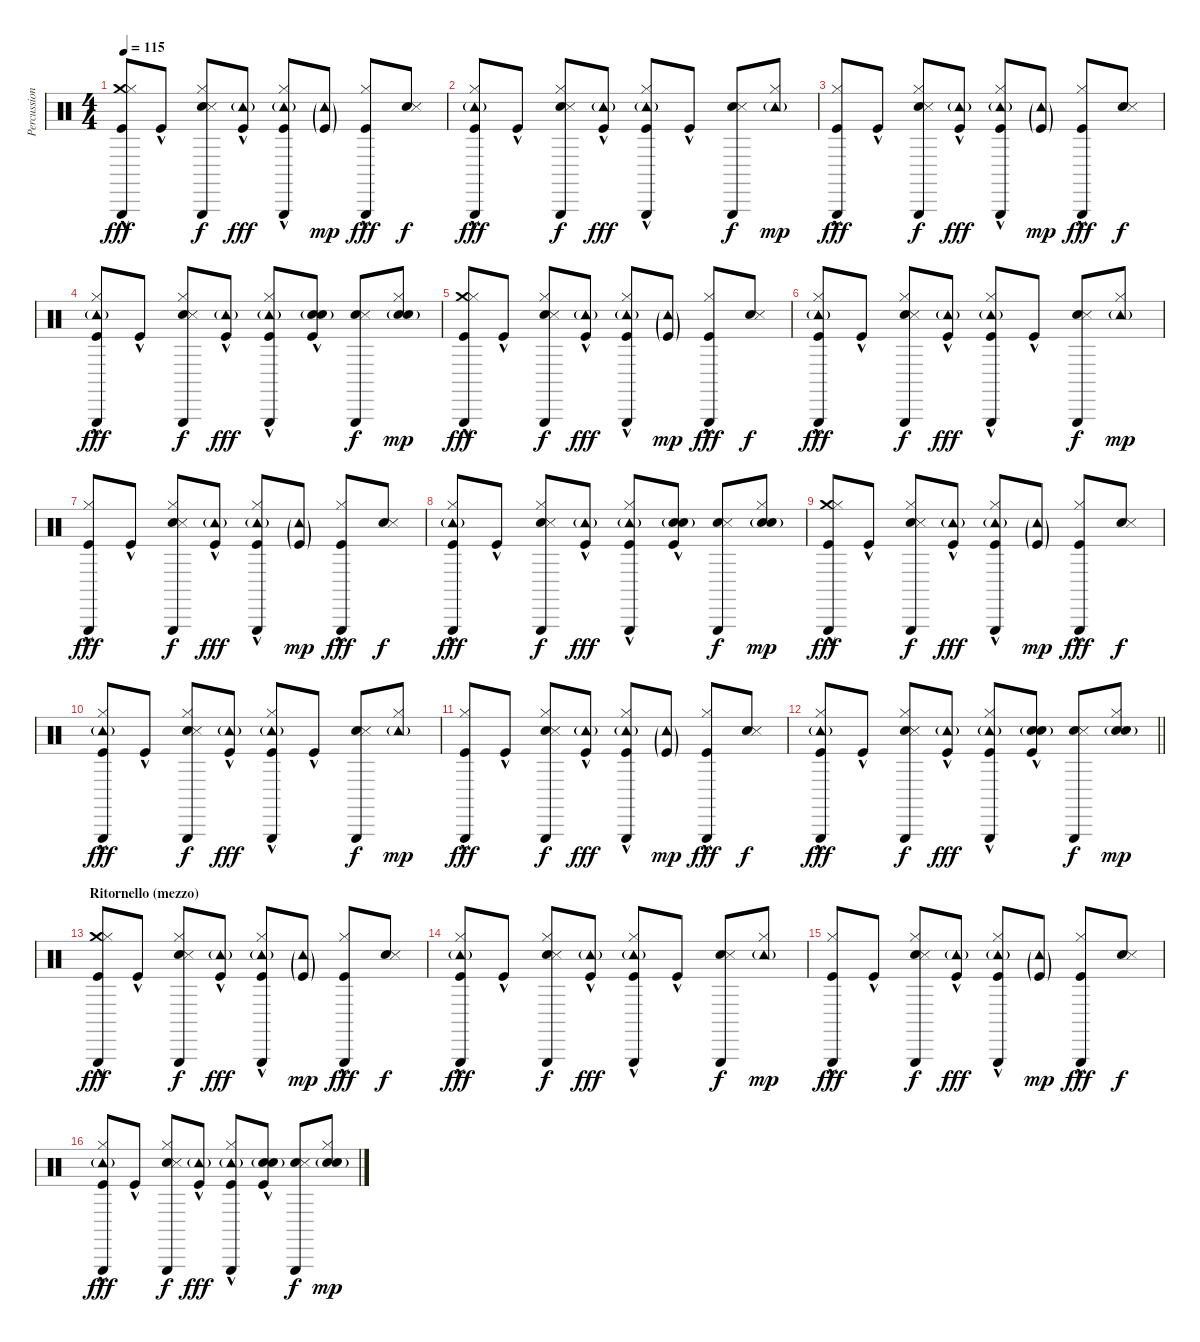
\track ("Percussion" "Percussion") {instrument percussion}
\staff {score}
\articulation defaults
\ts (4 4)
\tempo 115
\clef neutral
\ks c
("Triangle (hit)" "Crash medium (hit)" "Hi-Hat (closed)" "Kick (hit)"{hac}).8{dy fff} "Kick (hit)"{hac}.8 ("Hand Clap (hit)" "Snare (side stick) 3" "Hi-Hat (closed)" "Triangle (hit)").8{dy f} ("Tambourine (hit)"{g} "Kick (hit)"{hac}).8{dy fff} ("Triangle (hit)" "Hi-Hat (closed)" "Tambourine (hit)"{g} "Kick (hit)"{hac}).8 ("Tambourine (hit)"{g} "Kick (hit)"{g}).8{dy mp} ("Triangle (hit)" "Hi-Hat (closed)" "Kick (hit)"{hac}).8{dy fff} ("Hand Clap (hit)" "Snare (side stick) 3").8{dy f} |
("Triangle (hit)" "Hi-Hat (closed)" "Tambourine (hit)"{g} "Kick (hit)"{hac}).8{dy fff} "Kick (hit)"{hac}.8 ("Hand Clap (hit)" "Snare (side stick) 3" "Hi-Hat (closed)" "Triangle (hit)").8{dy f} ("Tambourine (hit)"{g} "Kick (hit)"{hac}).8{dy fff} ("Triangle (hit)" "Hi-Hat (closed)" "Tambourine (hit)"{g} "Kick (hit)"{hac}).8 "Kick (hit)"{hac}.8 ("Hand Clap (hit)" "Snare (side stick) 3" "Triangle (hit)").8{dy f} ("Hi-Hat (closed)" "Tambourine (hit)"{g}).8{dy mp} |
("Triangle (hit)" "Hi-Hat (closed)" "Kick (hit)"{hac}).8{dy fff} "Kick (hit)"{hac}.8 ("Hand Clap (hit)" "Snare (side stick) 3" "Hi-Hat (closed)" "Triangle (hit)").8{dy f} ("Tambourine (hit)"{g} "Kick (hit)"{hac}).8{dy fff} ("Triangle (hit)" "Hi-Hat (closed)" "Tambourine (hit)"{g} "Kick (hit)"{hac}).8 ("Tambourine (hit)"{g} "Kick (hit)"{g}).8{dy mp} ("Triangle (hit)" "Hi-Hat (closed)" "Kick (hit)"{hac}).8{dy fff} ("Hand Clap (hit)" "Snare (side stick) 3").8{dy f} |
("Triangle (hit)" "Hi-Hat (closed)" "Tambourine (hit)"{g} "Kick (hit)"{hac}).8{dy fff} "Kick (hit)"{hac}.8 ("Hand Clap (hit)" "Snare (side stick) 3" "Hi-Hat (closed)" "Triangle (hit)").8{dy f} ("Tambourine (hit)"{g} "Kick (hit)"{hac}).8{dy fff} ("Triangle (hit)" "Hi-Hat (closed)" "Tambourine (hit)"{g} "Kick (hit)"{hac}).8 ("Snare (hit) 2" "Electric Snare (hit)"{g} "Kick (hit)"{hac}).8 ("Hand Clap (hit)" "Snare (side stick) 3" "Triangle (hit)").8{dy f} ("Hi-Hat (closed)" "Snare (hit) 2" "Electric Snare (hit)"{g}).8{dy mp} |
("Triangle (hit)" "Crash medium (hit)" "Hi-Hat (closed)" "Kick (hit)"{hac}).8{dy fff} "Kick (hit)"{hac}.8 ("Hand Clap (hit)" "Snare (side stick) 3" "Hi-Hat (closed)" "Triangle (hit)").8{dy f} ("Tambourine (hit)"{g} "Kick (hit)"{hac}).8{dy fff} ("Triangle (hit)" "Hi-Hat (closed)" "Tambourine (hit)"{g} "Kick (hit)"{hac}).8 ("Tambourine (hit)"{g} "Kick (hit)"{g}).8{dy mp} ("Triangle (hit)" "Hi-Hat (closed)" "Kick (hit)"{hac}).8{dy fff} ("Hand Clap (hit)" "Snare (side stick) 3").8{dy f} |
("Triangle (hit)" "Hi-Hat (closed)" "Tambourine (hit)"{g} "Kick (hit)"{hac}).8{dy fff} "Kick (hit)"{hac}.8 ("Hand Clap (hit)" "Snare (side stick) 3" "Hi-Hat (closed)" "Triangle (hit)").8{dy f} ("Tambourine (hit)"{g} "Kick (hit)"{hac}).8{dy fff} ("Triangle (hit)" "Hi-Hat (closed)" "Tambourine (hit)"{g} "Kick (hit)"{hac}).8 "Kick (hit)"{hac}.8 ("Hand Clap (hit)" "Snare (side stick) 3" "Triangle (hit)").8{dy f} ("Hi-Hat (closed)" "Tambourine (hit)"{g}).8{dy mp} |
("Triangle (hit)" "Hi-Hat (closed)" "Kick (hit)"{hac}).8{dy fff} "Kick (hit)"{hac}.8 ("Hand Clap (hit)" "Snare (side stick) 3" "Hi-Hat (closed)" "Triangle (hit)").8{dy f} ("Tambourine (hit)"{g} "Kick (hit)"{hac}).8{dy fff} ("Triangle (hit)" "Hi-Hat (closed)" "Tambourine (hit)"{g} "Kick (hit)"{hac}).8 ("Tambourine (hit)"{g} "Kick (hit)"{g}).8{dy mp} ("Triangle (hit)" "Hi-Hat (closed)" "Kick (hit)"{hac}).8{dy fff} ("Hand Clap (hit)" "Snare (side stick) 3").8{dy f} |
("Triangle (hit)" "Hi-Hat (closed)" "Tambourine (hit)"{g} "Kick (hit)"{hac}).8{dy fff} "Kick (hit)"{hac}.8 ("Hand Clap (hit)" "Snare (side stick) 3" "Hi-Hat (closed)" "Triangle (hit)").8{dy f} ("Tambourine (hit)"{g} "Kick (hit)"{hac}).8{dy fff} ("Triangle (hit)" "Hi-Hat (closed)" "Tambourine (hit)"{g} "Kick (hit)"{hac}).8 ("Snare (hit) 2" "Electric Snare (hit)"{g} "Kick (hit)"{hac}).8 ("Hand Clap (hit)" "Snare (side stick) 3" "Triangle (hit)").8{dy f} ("Hi-Hat (closed)" "Snare (hit) 2" "Electric Snare (hit)"{g}).8{dy mp} |
("Triangle (hit)" "Crash medium (hit)" "Hi-Hat (closed)" "Kick (hit)"{hac}).8{dy fff} "Kick (hit)"{hac}.8 ("Hand Clap (hit)" "Snare (side stick) 3" "Hi-Hat (closed)" "Triangle (hit)").8{dy f} ("Tambourine (hit)"{g} "Kick (hit)"{hac}).8{dy fff} ("Triangle (hit)" "Hi-Hat (closed)" "Tambourine (hit)"{g} "Kick (hit)"{hac}).8 ("Tambourine (hit)"{g} "Kick (hit)"{g}).8{dy mp} ("Triangle (hit)" "Hi-Hat (closed)" "Kick (hit)"{hac}).8{dy fff} ("Hand Clap (hit)" "Snare (side stick) 3").8{dy f} |
("Triangle (hit)" "Hi-Hat (closed)" "Tambourine (hit)"{g} "Kick (hit)"{hac}).8{dy fff} "Kick (hit)"{hac}.8 ("Hand Clap (hit)" "Snare (side stick) 3" "Hi-Hat (closed)" "Triangle (hit)").8{dy f} ("Tambourine (hit)"{g} "Kick (hit)"{hac}).8{dy fff} ("Triangle (hit)" "Hi-Hat (closed)" "Tambourine (hit)"{g} "Kick (hit)"{hac}).8 "Kick (hit)"{hac}.8 ("Hand Clap (hit)" "Snare (side stick) 3" "Triangle (hit)").8{dy f} ("Hi-Hat (closed)" "Tambourine (hit)"{g}).8{dy mp} |
("Triangle (hit)" "Hi-Hat (closed)" "Kick (hit)"{hac}).8{dy fff} "Kick (hit)"{hac}.8 ("Hand Clap (hit)" "Snare (side stick) 3" "Hi-Hat (closed)" "Triangle (hit)").8{dy f} ("Tambourine (hit)"{g} "Kick (hit)"{hac}).8{dy fff} ("Triangle (hit)" "Hi-Hat (closed)" "Tambourine (hit)"{g} "Kick (hit)"{hac}).8 ("Tambourine (hit)"{g} "Kick (hit)"{g}).8{dy mp} ("Triangle (hit)" "Hi-Hat (closed)" "Kick (hit)"{hac}).8{dy fff} ("Hand Clap (hit)" "Snare (side stick) 3").8{dy f} |
\barLineRight lightlight
("Triangle (hit)" "Hi-Hat (closed)" "Tambourine (hit)"{g} "Kick (hit)"{hac}).8{dy fff} "Kick (hit)"{hac}.8 ("Hand Clap (hit)" "Snare (side stick) 3" "Hi-Hat (closed)" "Triangle (hit)").8{dy f} ("Tambourine (hit)"{g} "Kick (hit)"{hac}).8{dy fff} ("Triangle (hit)" "Hi-Hat (closed)" "Tambourine (hit)"{g} "Kick (hit)"{hac}).8 ("Snare (hit) 2" "Electric Snare (hit)"{g} "Kick (hit)"{hac}).8 ("Hand Clap (hit)" "Snare (side stick) 3" "Triangle (hit)").8{dy f} ("Hi-Hat (closed)" "Snare (hit) 2" "Electric Snare (hit)"{g}).8{dy mp} |
\section ("" "Ritornello (mezzo)")
("Triangle (hit)" "Crash medium (hit)" "Hi-Hat (closed)" "Kick (hit)"{hac}).8{dy fff} "Kick (hit)"{hac}.8 ("Hand Clap (hit)" "Snare (side stick) 3" "Hi-Hat (closed)" "Triangle (hit)").8{dy f} ("Tambourine (hit)"{g} "Kick (hit)"{hac}).8{dy fff} ("Triangle (hit)" "Hi-Hat (closed)" "Tambourine (hit)"{g} "Kick (hit)"{hac}).8 ("Tambourine (hit)"{g} "Kick (hit)"{g}).8{dy mp} ("Triangle (hit)" "Hi-Hat (closed)" "Kick (hit)"{hac}).8{dy fff} ("Hand Clap (hit)" "Snare (side stick) 3").8{dy f} |
("Triangle (hit)" "Hi-Hat (closed)" "Tambourine (hit)"{g} "Kick (hit)"{hac}).8{dy fff} "Kick (hit)"{hac}.8 ("Hand Clap (hit)" "Snare (side stick) 3" "Hi-Hat (closed)" "Triangle (hit)").8{dy f} ("Tambourine (hit)"{g} "Kick (hit)"{hac}).8{dy fff} ("Triangle (hit)" "Hi-Hat (closed)" "Tambourine (hit)"{g} "Kick (hit)"{hac}).8 "Kick (hit)"{hac}.8 ("Hand Clap (hit)" "Snare (side stick) 3" "Triangle (hit)").8{dy f} ("Hi-Hat (closed)" "Tambourine (hit)"{g}).8{dy mp} |
("Triangle (hit)" "Hi-Hat (closed)" "Kick (hit)"{hac}).8{dy fff} "Kick (hit)"{hac}.8 ("Hand Clap (hit)" "Snare (side stick) 3" "Hi-Hat (closed)" "Triangle (hit)").8{dy f} ("Tambourine (hit)"{g} "Kick (hit)"{hac}).8{dy fff} ("Triangle (hit)" "Hi-Hat (closed)" "Tambourine (hit)"{g} "Kick (hit)"{hac}).8 ("Tambourine (hit)"{g} "Kick (hit)"{g}).8{dy mp} ("Triangle (hit)" "Hi-Hat (closed)" "Kick (hit)"{hac}).8{dy fff} ("Hand Clap (hit)" "Snare (side stick) 3").8{dy f} |
("Triangle (hit)" "Hi-Hat (closed)" "Tambourine (hit)"{g} "Kick (hit)"{hac}).8{dy fff} "Kick (hit)"{hac}.8 ("Hand Clap (hit)" "Snare (side stick) 3" "Hi-Hat (closed)" "Triangle (hit)").8{dy f} ("Tambourine (hit)"{g} "Kick (hit)"{hac}).8{dy fff} ("Triangle (hit)" "Hi-Hat (closed)" "Tambourine (hit)"{g} "Kick (hit)"{hac}).8 ("Snare (hit) 2" "Electric Snare (hit)"{g} "Kick (hit)"{hac}).8 ("Hand Clap (hit)" "Snare (side stick) 3" "Triangle (hit)").8{dy f} ("Hi-Hat (closed)" "Snare (hit) 2" "Electric Snare (hit)"{g}).8{dy mp}
